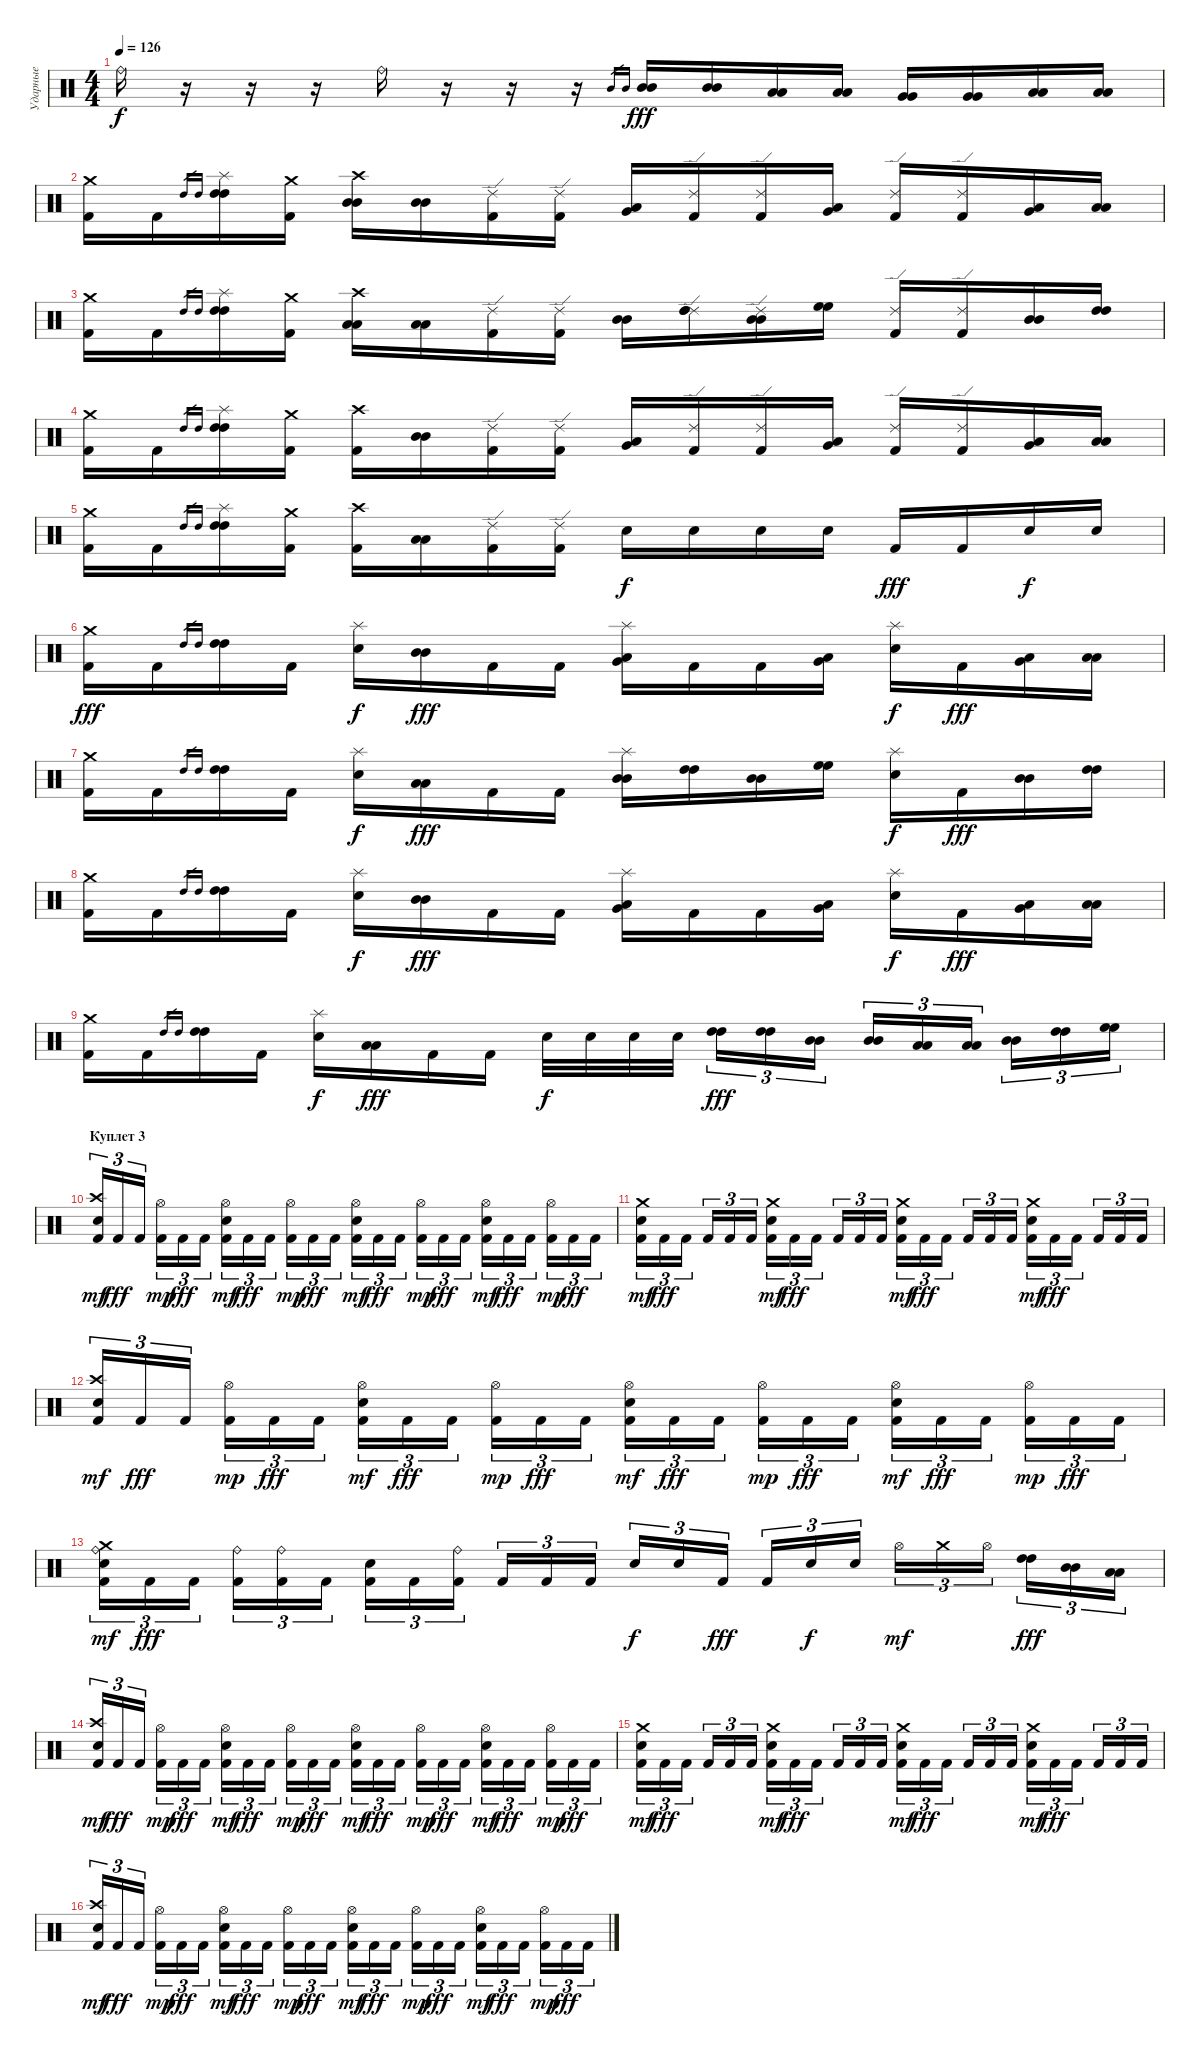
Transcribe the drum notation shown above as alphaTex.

\track ("Ударные" "Ударные") {instrument percussion}
\staff {score}
\articulation defaults
\ts (4 4)
\tempo 126
\clef neutral
\ks c "Ride (bell)".16{dy f}
r.16 r.16 r.16 "Ride (bell)".16 r.16 r.16 r.16 "Mid Tom (hit)".16{gr} "Mid Tom (hit)".16{gr} ("Mid Tom (hit)" "Mid Tom (hit)").16{dy fff} ("Mid Tom (hit)" "Mid Tom (hit)").16 ("Low Tom (hit)" "Low Tom (hit)").16 ("Low Tom (hit)" "Low Tom (hit)").16 ("Very Low Tom (hit)" "Very Low Tom (hit)").16 ("Very Low Tom (hit)" "Very Low Tom (hit)").16 ("Low Floor Tom (hit)" "Low Floor Tom (hit)").16 ("Low Floor Tom (hit)" "Low Floor Tom (hit)").16 |
("Crash medium (hit)" "Kick (hit) 2").16 "Kick (hit) 2".16 "High Tom (hit)".16{gr} "High Tom (hit)".16{gr} ("Splash (hit)" "High Tom (hit)" "High Tom (hit)").16 ("Crash medium (hit)" "Kick (hit) 2").16 ("Crash high (hit)" "Mid Tom (hit)" "Mid Tom (hit)").16 ("Mid Tom (hit)" "Mid Tom (hit)").16 ("Ride (edge) 2" "Kick (hit) 2").16 ("Ride (edge) 2" "Kick (hit) 2").16 ("Low Tom (hit)" "Very Low Tom (hit)").16 ("Ride (edge) 2" "Kick (hit) 2").16 ("Ride (edge) 2" "Kick (hit) 2").16 ("Very Low Tom (hit)" "Low Floor Tom (hit)").16 ("Ride (edge) 2" "Kick (hit) 2").16 ("Ride (edge) 2" "Kick (hit) 2").16 ("Very Low Tom (hit)" "Low Floor Tom (hit)").16 ("Low Floor Tom (hit)" "Low Floor Tom (hit)").16 |
("Crash medium (hit)" "Kick (hit) 2").16 "Kick (hit) 2".16 "High Tom (hit)".16{gr} "High Tom (hit)".16{gr} ("Splash (hit)" "High Tom (hit)" "High Tom (hit)").16 ("Crash medium (hit)" "Kick (hit) 2").16 ("Crash high (hit)" "Low Tom (hit)" "Low Tom (hit)").16 ("Low Tom (hit)" "Low Tom (hit)").16 ("Ride (edge) 2" "Kick (hit) 2").16 ("Ride (edge) 2" "Kick (hit) 2").16 ("Mid Tom (hit)" "Mid Tom (hit)").16 ("Ride (edge) 2" "High Tom (hit)" "High Tom (hit)").16 ("Ride (edge) 2" "Mid Tom (hit)" "Mid Tom (hit)").16 ("High Floor Tom (hit)" "High Floor Tom (hit)").16 ("Ride (edge) 2" "Kick (hit) 2").16 ("Ride (edge) 2" "Kick (hit) 2").16 ("Mid Tom (hit)" "Mid Tom (hit)").16 ("High Tom (hit)" "High Tom (hit)").16 |
("Crash medium (hit)" "Kick (hit) 2").16 "Kick (hit) 2".16 "High Tom (hit)".16{gr} "High Tom (hit)".16{gr} ("Splash (hit)" "High Tom (hit)" "High Tom (hit)").16 ("Crash medium (hit)" "Kick (hit) 2").16 ("Crash high (hit)" "Kick (hit) 2").16 ("Mid Tom (hit)" "Mid Tom (hit)").16 ("Ride (edge) 2" "Kick (hit) 2").16 ("Ride (edge) 2" "Kick (hit) 2").16 ("Low Tom (hit)" "Very Low Tom (hit)").16 ("Ride (edge) 2" "Kick (hit) 2").16 ("Ride (edge) 2" "Kick (hit) 2").16 ("Very Low Tom (hit)" "Low Floor Tom (hit)").16 ("Ride (edge) 2" "Kick (hit) 2").16 ("Ride (edge) 2" "Kick (hit) 2").16 ("Very Low Tom (hit)" "Low Floor Tom (hit)").16 ("Low Floor Tom (hit)" "Low Floor Tom (hit)").16 |
("Crash medium (hit)" "Kick (hit) 2").16 "Kick (hit) 2".16 "High Tom (hit)".16{gr} "High Tom (hit)".16{gr} ("Splash (hit)" "High Tom (hit)" "High Tom (hit)").16 ("Crash medium (hit)" "Kick (hit) 2").16 ("Crash high (hit)" "Kick (hit) 2").16 ("Low Tom (hit)" "Low Tom (hit)").16 ("Ride (edge) 2" "Kick (hit) 2").16 ("Ride (edge) 2" "Kick (hit) 2").16 "Electric Snare (hit)".16{dy f} "Electric Snare (hit)".16 "Electric Snare (hit)".16 "Electric Snare (hit)".16 "Kick (hit) 2".16{dy fff} "Kick (hit) 2".16 "Electric Snare (hit)".16{dy f} "Electric Snare (hit)".16 |
("Crash medium (hit)" "Kick (hit) 2").16{dy fff} "Kick (hit) 2".16 "High Tom (hit)".16{gr} "High Tom (hit)".16{gr} ("High Tom (hit)" "High Tom (hit)").16 "Kick (hit) 2".16 ("Splash (hit)" "Electric Snare (hit)").16{dy f} ("Mid Tom (hit)" "Mid Tom (hit)").16{dy fff} "Kick (hit) 2".16 "Kick (hit) 2".16 ("Splash (hit)" "Low Tom (hit)" "Very Low Tom (hit)").16 "Kick (hit) 2".16 "Kick (hit) 2".16 ("Very Low Tom (hit)" "Low Floor Tom (hit)").16 ("Splash (hit)" "Electric Snare (hit)").16{dy f} "Kick (hit) 2".16{dy fff} ("Very Low Tom (hit)" "Low Floor Tom (hit)").16 ("Low Floor Tom (hit)" "Low Floor Tom (hit)").16 |
("Crash medium (hit)" "Kick (hit) 2").16 "Kick (hit) 2".16 "High Tom (hit)".16{gr} "High Tom (hit)".16{gr} ("High Tom (hit)" "High Tom (hit)").16 "Kick (hit) 2".16 ("Splash (hit)" "Electric Snare (hit)").16{dy f} ("Low Tom (hit)" "Low Tom (hit)").16{dy fff} "Kick (hit) 2".16 "Kick (hit) 2".16 ("Splash (hit)" "Mid Tom (hit)" "Mid Tom (hit)").16 ("High Tom (hit)" "High Tom (hit)").16 ("Mid Tom (hit)" "Mid Tom (hit)").16 ("High Floor Tom (hit)" "High Floor Tom (hit)").16 ("Splash (hit)" "Electric Snare (hit)").16{dy f} "Kick (hit) 2".16{dy fff} ("Mid Tom (hit)" "Mid Tom (hit)").16 ("High Tom (hit)" "High Tom (hit)").16 |
("Crash medium (hit)" "Kick (hit) 2").16 "Kick (hit) 2".16 "High Tom (hit)".16{gr} "High Tom (hit)".16{gr} ("High Tom (hit)" "High Tom (hit)").16 "Kick (hit) 2".16 ("Splash (hit)" "Electric Snare (hit)").16{dy f} ("Mid Tom (hit)" "Mid Tom (hit)").16{dy fff} "Kick (hit) 2".16 "Kick (hit) 2".16 ("Splash (hit)" "Low Tom (hit)" "Very Low Tom (hit)").16 "Kick (hit) 2".16 "Kick (hit) 2".16 ("Very Low Tom (hit)" "Low Floor Tom (hit)").16 ("Splash (hit)" "Electric Snare (hit)").16{dy f} "Kick (hit) 2".16{dy fff} ("Very Low Tom (hit)" "Low Floor Tom (hit)").16 ("Low Floor Tom (hit)" "Low Floor Tom (hit)").16 |
("Crash medium (hit)" "Kick (hit) 2").16 "Kick (hit) 2".16 "High Tom (hit)".16{gr} "High Tom (hit)".16{gr} ("High Tom (hit)" "High Tom (hit)").16 "Kick (hit) 2".16 ("Splash (hit)" "Electric Snare (hit)").16{dy f} ("Low Tom (hit)" "Low Tom (hit)").16{dy fff} "Kick (hit) 2".16 "Kick (hit) 2".16 "Electric Snare (hit)".32{dy f} "Electric Snare (hit)".32 "Electric Snare (hit)".32 "Electric Snare (hit)".32 ("High Tom (hit)" "High Tom (hit)").16{tu (3 2) dy fff} ("High Tom (hit)" "High Tom (hit)").16{tu (3 2)} ("Mid Tom (hit)" "Mid Tom (hit)").16{tu (3 2)} ("Mid Tom (hit)" "Mid Tom (hit)").16{tu (3 2)} ("Low Tom (hit)" "Low Tom (hit)").16{tu (3 2)} ("Low Tom (hit)" "Low Tom (hit)").16{tu (3 2)} ("Mid Tom (hit)" "Mid Tom (hit)").16{tu (3 2)} ("High Tom (hit)" "High Tom (hit)").16{tu (3 2)} ("High Floor Tom (hit)" "High Floor Tom (hit)").16{tu (3 2)} |
\section ("" "Куплет 3")
("Kick (hit) 2" "Electric Snare (hit)" "Crash high (hit)").16{tu (3 2) dy mf} "Kick (hit) 2".16{tu (3 2) dy fff} "Kick (hit) 2".16{tu (3 2)} ("Kick (hit) 2" "Hi-Hat (open)").16{tu (3 2) dy mp} "Kick (hit) 2".16{tu (3 2) dy fff} "Kick (hit) 2".16{tu (3 2)} ("Kick (hit) 2" "Electric Snare (hit)" "Hi-Hat (open)").16{tu (3 2) dy mf} "Kick (hit) 2".16{tu (3 2) dy fff} "Kick (hit) 2".16{tu (3 2)} ("Kick (hit) 2" "Hi-Hat (open)").16{tu (3 2) dy mp} "Kick (hit) 2".16{tu (3 2) dy fff} "Kick (hit) 2".16{tu (3 2)} ("Kick (hit) 2" "Electric Snare (hit)" "Hi-Hat (open)").16{tu (3 2) dy mf} "Kick (hit) 2".16{tu (3 2) dy fff} "Kick (hit) 2".16{tu (3 2)} ("Kick (hit) 2" "Hi-Hat (open)").16{tu (3 2) dy mp} "Kick (hit) 2".16{tu (3 2) dy fff} "Kick (hit) 2".16{tu (3 2)} ("Kick (hit) 2" "Electric Snare (hit)" "Hi-Hat (open)").16{tu (3 2) dy mf} "Kick (hit) 2".16{tu (3 2) dy fff} "Kick (hit) 2".16{tu (3 2)} ("Kick (hit) 2" "Hi-Hat (open)").16{tu (3 2) dy mp} "Kick (hit) 2".16{tu (3 2) dy fff} "Kick (hit) 2".16{tu (3 2)} |
("Kick (hit) 2" "Electric Snare (hit)" "Crash medium (hit)").16{tu (3 2) dy mf} "Kick (hit) 2".16{tu (3 2) dy fff} "Kick (hit) 2".16{tu (3 2)} "Kick (hit) 2".16{tu (3 2)} "Kick (hit) 2".16{tu (3 2)} "Kick (hit) 2".16{tu (3 2)} ("Kick (hit) 2" "Electric Snare (hit)" "Crash medium (hit)").16{tu (3 2) dy mf} "Kick (hit) 2".16{tu (3 2) dy fff} "Kick (hit) 2".16{tu (3 2)} "Kick (hit) 2".16{tu (3 2)} "Kick (hit) 2".16{tu (3 2)} "Kick (hit) 2".16{tu (3 2)} ("Kick (hit) 2" "Electric Snare (hit)" "Crash medium (hit)").16{tu (3 2) dy mf} "Kick (hit) 2".16{tu (3 2) dy fff} "Kick (hit) 2".16{tu (3 2)} "Kick (hit) 2".16{tu (3 2)} "Kick (hit) 2".16{tu (3 2)} "Kick (hit) 2".16{tu (3 2)} ("Kick (hit) 2" "Electric Snare (hit)" "Crash medium (hit)").16{tu (3 2) dy mf} "Kick (hit) 2".16{tu (3 2) dy fff} "Kick (hit) 2".16{tu (3 2)} "Kick (hit) 2".16{tu (3 2)} "Kick (hit) 2".16{tu (3 2)} "Kick (hit) 2".16{tu (3 2)} |
("Kick (hit) 2" "Electric Snare (hit)" "Crash high (hit)").16{tu (3 2) dy mf} "Kick (hit) 2".16{tu (3 2) dy fff} "Kick (hit) 2".16{tu (3 2)} ("Kick (hit) 2" "Hi-Hat (open)").16{tu (3 2) dy mp} "Kick (hit) 2".16{tu (3 2) dy fff} "Kick (hit) 2".16{tu (3 2)} ("Kick (hit) 2" "Electric Snare (hit)" "Hi-Hat (open)").16{tu (3 2) dy mf} "Kick (hit) 2".16{tu (3 2) dy fff} "Kick (hit) 2".16{tu (3 2)} ("Kick (hit) 2" "Hi-Hat (open)").16{tu (3 2) dy mp} "Kick (hit) 2".16{tu (3 2) dy fff} "Kick (hit) 2".16{tu (3 2)} ("Kick (hit) 2" "Electric Snare (hit)" "Hi-Hat (open)").16{tu (3 2) dy mf} "Kick (hit) 2".16{tu (3 2) dy fff} "Kick (hit) 2".16{tu (3 2)} ("Kick (hit) 2" "Hi-Hat (open)").16{tu (3 2) dy mp} "Kick (hit) 2".16{tu (3 2) dy fff} "Kick (hit) 2".16{tu (3 2)} ("Kick (hit) 2" "Electric Snare (hit)" "Hi-Hat (open)").16{tu (3 2) dy mf} "Kick (hit) 2".16{tu (3 2) dy fff} "Kick (hit) 2".16{tu (3 2)} ("Kick (hit) 2" "Hi-Hat (open)").16{tu (3 2) dy mp} "Kick (hit) 2".16{tu (3 2) dy fff} "Kick (hit) 2".16{tu (3 2)} |
("Kick (hit) 2" "Electric Snare (hit)" "Crash medium (hit)" "Ride (bell)").16{tu (3 2) dy mf} "Kick (hit) 2".16{tu (3 2) dy fff} "Kick (hit) 2".16{tu (3 2)} ("Kick (hit) 2" "Ride (bell)").16{tu (3 2)} ("Kick (hit) 2" "Ride (bell)").16{tu (3 2)} "Kick (hit) 2".16{tu (3 2)} ("Kick (hit) 2" "Electric Snare (hit)").16{tu (3 2)} "Kick (hit) 2".16{tu (3 2)} ("Kick (hit) 2" "Ride (bell)").16{tu (3 2)} "Kick (hit) 2".16{tu (3 2)} "Kick (hit) 2".16{tu (3 2)} "Kick (hit) 2".16{tu (3 2)} "Electric Snare (hit)".16{tu (3 2) dy f} "Electric Snare (hit)".16{tu (3 2)} "Kick (hit) 2".16{tu (3 2) dy fff} "Kick (hit) 2".16{tu (3 2)} "Electric Snare (hit)".16{tu (3 2) dy f} "Electric Snare (hit)".16{tu (3 2)} "Hi-Hat (open)".16{tu (3 2) dy mf} "Crash medium (hit)".16{tu (3 2)} "Hi-Hat (open)".16{tu (3 2)} ("High Tom (hit)" "High Tom (hit)").16{tu (3 2) dy fff} ("Mid Tom (hit)" "Mid Tom (hit)").16{tu (3 2)} ("Low Tom (hit)" "Low Tom (hit)").16{tu (3 2)} |
("Kick (hit) 2" "Electric Snare (hit)" "Crash high (hit)").16{tu (3 2) dy mf} "Kick (hit) 2".16{tu (3 2) dy fff} "Kick (hit) 2".16{tu (3 2)} ("Kick (hit) 2" "Hi-Hat (open)").16{tu (3 2) dy mp} "Kick (hit) 2".16{tu (3 2) dy fff} "Kick (hit) 2".16{tu (3 2)} ("Kick (hit) 2" "Electric Snare (hit)" "Hi-Hat (open)").16{tu (3 2) dy mf} "Kick (hit) 2".16{tu (3 2) dy fff} "Kick (hit) 2".16{tu (3 2)} ("Kick (hit) 2" "Hi-Hat (open)").16{tu (3 2) dy mp} "Kick (hit) 2".16{tu (3 2) dy fff} "Kick (hit) 2".16{tu (3 2)} ("Kick (hit) 2" "Electric Snare (hit)" "Hi-Hat (open)").16{tu (3 2) dy mf} "Kick (hit) 2".16{tu (3 2) dy fff} "Kick (hit) 2".16{tu (3 2)} ("Kick (hit) 2" "Hi-Hat (open)").16{tu (3 2) dy mp} "Kick (hit) 2".16{tu (3 2) dy fff} "Kick (hit) 2".16{tu (3 2)} ("Kick (hit) 2" "Electric Snare (hit)" "Hi-Hat (open)").16{tu (3 2) dy mf} "Kick (hit) 2".16{tu (3 2) dy fff} "Kick (hit) 2".16{tu (3 2)} ("Kick (hit) 2" "Hi-Hat (open)").16{tu (3 2) dy mp} "Kick (hit) 2".16{tu (3 2) dy fff} "Kick (hit) 2".16{tu (3 2)} |
("Kick (hit) 2" "Electric Snare (hit)" "Crash medium (hit)").16{tu (3 2) dy mf} "Kick (hit) 2".16{tu (3 2) dy fff} "Kick (hit) 2".16{tu (3 2)} "Kick (hit) 2".16{tu (3 2)} "Kick (hit) 2".16{tu (3 2)} "Kick (hit) 2".16{tu (3 2)} ("Kick (hit) 2" "Electric Snare (hit)" "Crash medium (hit)").16{tu (3 2) dy mf} "Kick (hit) 2".16{tu (3 2) dy fff} "Kick (hit) 2".16{tu (3 2)} "Kick (hit) 2".16{tu (3 2)} "Kick (hit) 2".16{tu (3 2)} "Kick (hit) 2".16{tu (3 2)} ("Kick (hit) 2" "Electric Snare (hit)" "Crash medium (hit)").16{tu (3 2) dy mf} "Kick (hit) 2".16{tu (3 2) dy fff} "Kick (hit) 2".16{tu (3 2)} "Kick (hit) 2".16{tu (3 2)} "Kick (hit) 2".16{tu (3 2)} "Kick (hit) 2".16{tu (3 2)} ("Kick (hit) 2" "Electric Snare (hit)" "Crash medium (hit)").16{tu (3 2) dy mf} "Kick (hit) 2".16{tu (3 2) dy fff} "Kick (hit) 2".16{tu (3 2)} "Kick (hit) 2".16{tu (3 2)} "Kick (hit) 2".16{tu (3 2)} "Kick (hit) 2".16{tu (3 2)} |
("Kick (hit) 2" "Electric Snare (hit)" "Crash high (hit)").16{tu (3 2) dy mf} "Kick (hit) 2".16{tu (3 2) dy fff} "Kick (hit) 2".16{tu (3 2)} ("Kick (hit) 2" "Hi-Hat (open)").16{tu (3 2) dy mp} "Kick (hit) 2".16{tu (3 2) dy fff} "Kick (hit) 2".16{tu (3 2)} ("Kick (hit) 2" "Electric Snare (hit)" "Hi-Hat (open)").16{tu (3 2) dy mf} "Kick (hit) 2".16{tu (3 2) dy fff} "Kick (hit) 2".16{tu (3 2)} ("Kick (hit) 2" "Hi-Hat (open)").16{tu (3 2) dy mp} "Kick (hit) 2".16{tu (3 2) dy fff} "Kick (hit) 2".16{tu (3 2)} ("Kick (hit) 2" "Electric Snare (hit)" "Hi-Hat (open)").16{tu (3 2) dy mf} "Kick (hit) 2".16{tu (3 2) dy fff} "Kick (hit) 2".16{tu (3 2)} ("Kick (hit) 2" "Hi-Hat (open)").16{tu (3 2) dy mp} "Kick (hit) 2".16{tu (3 2) dy fff} "Kick (hit) 2".16{tu (3 2)} ("Kick (hit) 2" "Electric Snare (hit)" "Hi-Hat (open)").16{tu (3 2) dy mf} "Kick (hit) 2".16{tu (3 2) dy fff} "Kick (hit) 2".16{tu (3 2)} ("Kick (hit) 2" "Hi-Hat (open)").16{tu (3 2) dy mp} "Kick (hit) 2".16{tu (3 2) dy fff} "Kick (hit) 2".16{tu (3 2)}
